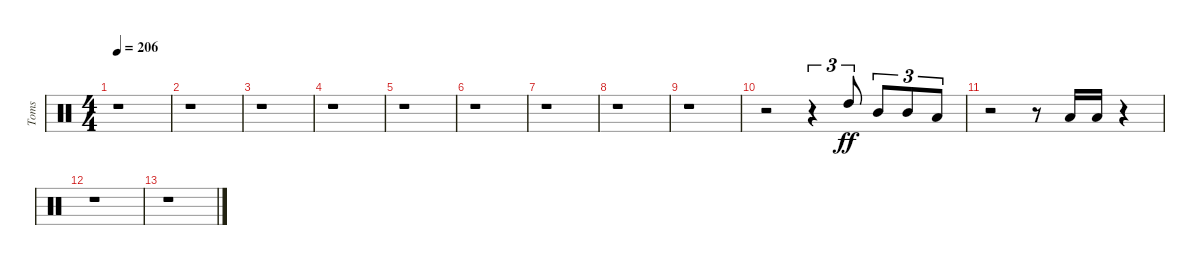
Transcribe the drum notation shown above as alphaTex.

\track ("Toms" "Toms") {instrument percussion}
\staff {score}
\articulation defaults
\ts (4 4)
\tempo 206
\clef neutral
\ks c
r.1{dy ff} |
r.1 |
r.1 |
r.1 |
r.1 |
r.1 |
r.1 |
r.1 |
r.1 |
r.2 r.4{tu (3 2) balance 8 beam Up} "High Tom (hit)".8{tu (3 2) beam Up} "Mid Tom (hit)".8{tu (3 2) balance 6 beam Up} "Mid Tom (hit)".8{tu (3 2) beam Up} "Low Tom (hit)".8{tu (3 2) balance 4 beam Up} |
r.2 r.8 "Low Tom (hit)".16{beam Up} "Low Tom (hit)".16{beam Up} r.4 |
r.1 |
r.1
